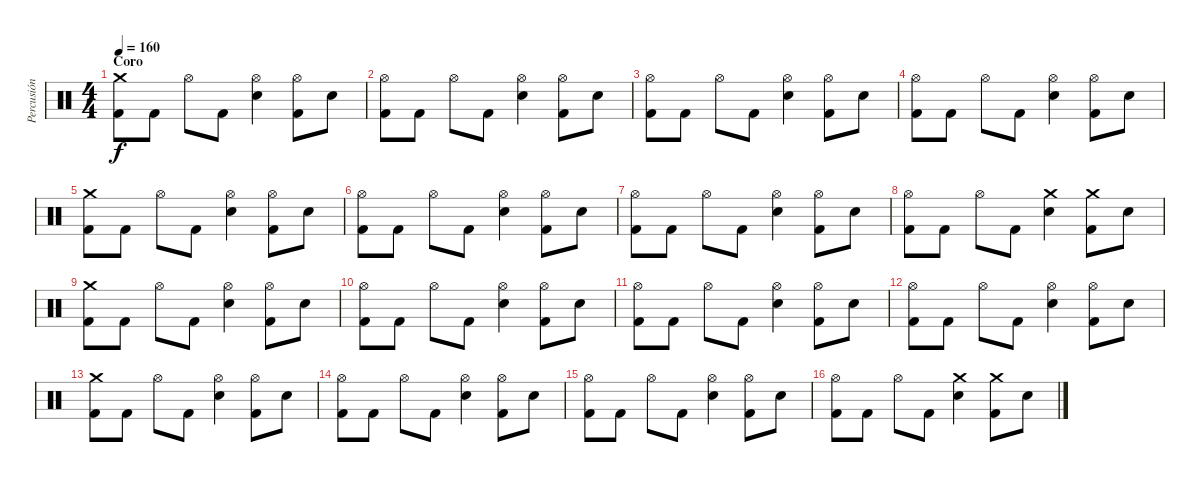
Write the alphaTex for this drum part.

\track ("Percusión" "Percusión") {instrument percussion}
\staff {score}
\articulation defaults
\ts (4 4)
\section ("" "Coro")
\tempo 160
\clef neutral
\ks c
("Crash medium (hit)" "Kick (hit) 2").8{dy f} "Kick (hit) 2".8 "Hi-Hat (open)".8 "Kick (hit) 2".8 ("Hi-Hat (open)" "Snare (hit) 2").4 ("Hi-Hat (open)" "Kick (hit) 2").8 "Snare (hit) 2".8 |
("Hi-Hat (open)" "Kick (hit) 2").8 "Kick (hit) 2".8 "Hi-Hat (open)".8 "Kick (hit) 2".8 ("Hi-Hat (open)" "Snare (hit) 2").4 ("Hi-Hat (open)" "Kick (hit) 2").8 "Snare (hit) 2".8 |
("Hi-Hat (open)" "Kick (hit) 2").8 "Kick (hit) 2".8 "Hi-Hat (open)".8 "Kick (hit) 2".8 ("Hi-Hat (open)" "Snare (hit) 2").4 ("Hi-Hat (open)" "Kick (hit) 2").8 "Snare (hit) 2".8 |
("Hi-Hat (open)" "Kick (hit) 2").8 "Kick (hit) 2".8 "Hi-Hat (open)".8 "Kick (hit) 2".8 ("Hi-Hat (open)" "Snare (hit) 2").4 ("Hi-Hat (open)" "Kick (hit) 2").8 "Snare (hit) 2".8 |
("Crash medium (hit)" "Kick (hit) 2").8 "Kick (hit) 2".8 "Hi-Hat (open)".8 "Kick (hit) 2".8 ("Hi-Hat (open)" "Snare (hit) 2").4 ("Hi-Hat (open)" "Kick (hit) 2").8 "Snare (hit) 2".8 |
("Hi-Hat (open)" "Kick (hit) 2").8 "Kick (hit) 2".8 "Hi-Hat (open)".8 "Kick (hit) 2".8 ("Hi-Hat (open)" "Snare (hit) 2").4 ("Hi-Hat (open)" "Kick (hit) 2").8 "Snare (hit) 2".8 |
("Hi-Hat (open)" "Kick (hit) 2").8 "Kick (hit) 2".8 "Hi-Hat (open)".8 "Kick (hit) 2".8 ("Hi-Hat (open)" "Snare (hit) 2").4 ("Hi-Hat (open)" "Kick (hit) 2").8 "Snare (hit) 2".8 |
("Hi-Hat (open)" "Kick (hit) 2").8 "Kick (hit) 2".8 "Hi-Hat (open)".8 "Kick (hit) 2".8 ("Crash medium (hit)" "Snare (hit) 2").4 ("Crash medium (hit)" "Kick (hit) 2").8 "Snare (hit) 2".8 |
("Crash medium (hit)" "Kick (hit) 2").8 "Kick (hit) 2".8 "Hi-Hat (open)".8 "Kick (hit) 2".8 ("Hi-Hat (open)" "Snare (hit) 2").4 ("Hi-Hat (open)" "Kick (hit) 2").8 "Snare (hit) 2".8 |
("Hi-Hat (open)" "Kick (hit) 2").8 "Kick (hit) 2".8 "Hi-Hat (open)".8 "Kick (hit) 2".8 ("Hi-Hat (open)" "Snare (hit) 2").4 ("Hi-Hat (open)" "Kick (hit) 2").8 "Snare (hit) 2".8 |
("Hi-Hat (open)" "Kick (hit) 2").8 "Kick (hit) 2".8 "Hi-Hat (open)".8 "Kick (hit) 2".8 ("Hi-Hat (open)" "Snare (hit) 2").4 ("Hi-Hat (open)" "Kick (hit) 2").8 "Snare (hit) 2".8 |
("Hi-Hat (open)" "Kick (hit) 2").8 "Kick (hit) 2".8 "Hi-Hat (open)".8 "Kick (hit) 2".8 ("Hi-Hat (open)" "Snare (hit) 2").4 ("Hi-Hat (open)" "Kick (hit) 2").8 "Snare (hit) 2".8 |
("Crash medium (hit)" "Kick (hit) 2").8 "Kick (hit) 2".8 "Hi-Hat (open)".8 "Kick (hit) 2".8 ("Hi-Hat (open)" "Snare (hit) 2").4 ("Hi-Hat (open)" "Kick (hit) 2").8 "Snare (hit) 2".8 |
("Hi-Hat (open)" "Kick (hit) 2").8 "Kick (hit) 2".8 "Hi-Hat (open)".8 "Kick (hit) 2".8 ("Hi-Hat (open)" "Snare (hit) 2").4 ("Hi-Hat (open)" "Kick (hit) 2").8 "Snare (hit) 2".8 |
("Hi-Hat (open)" "Kick (hit) 2").8 "Kick (hit) 2".8 "Hi-Hat (open)".8 "Kick (hit) 2".8 ("Hi-Hat (open)" "Snare (hit) 2").4 ("Hi-Hat (open)" "Kick (hit) 2").8 "Snare (hit) 2".8 |
("Hi-Hat (open)" "Kick (hit) 2").8 "Kick (hit) 2".8 "Hi-Hat (open)".8 "Kick (hit) 2".8 ("Crash medium (hit)" "Snare (hit) 2").4 ("Crash medium (hit)" "Kick (hit) 2").8 "Snare (hit) 2".8
